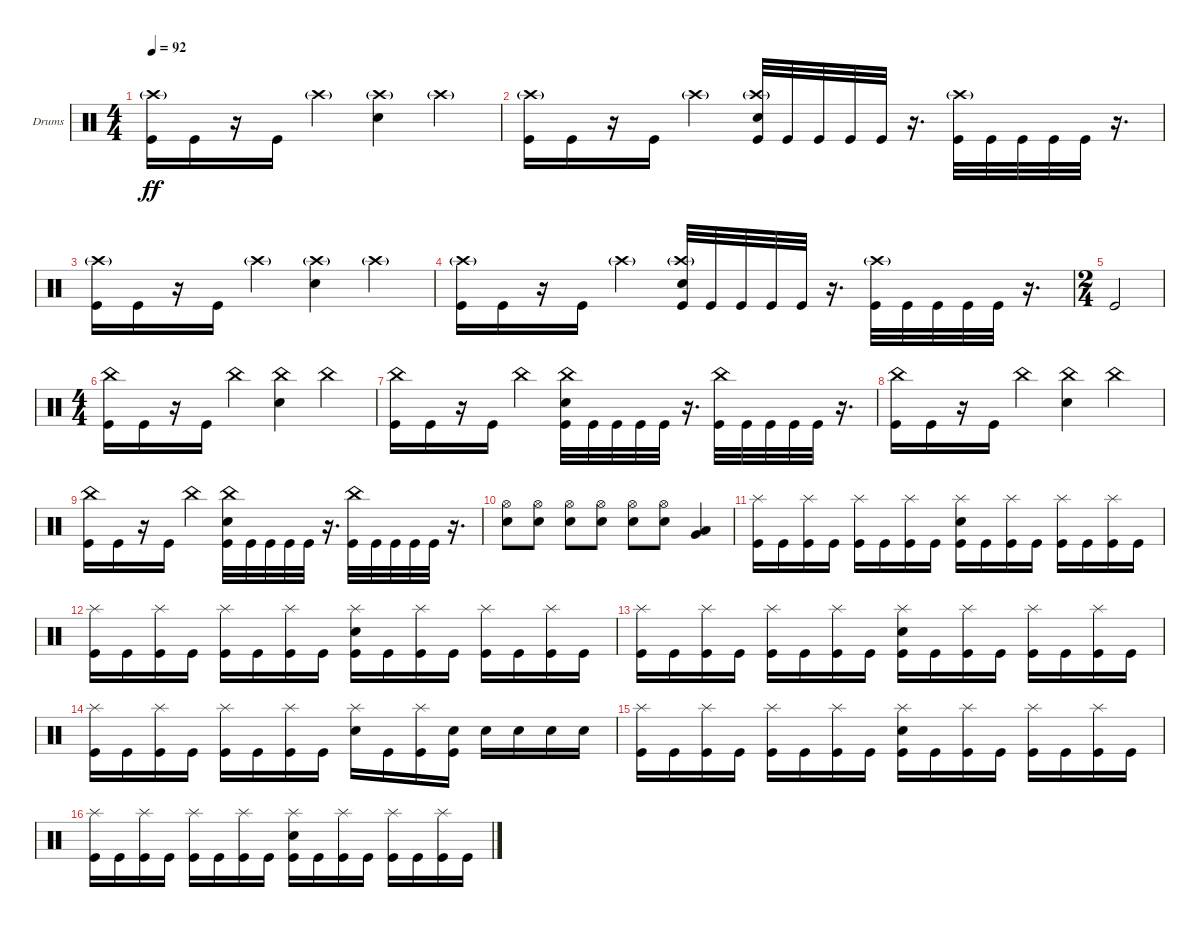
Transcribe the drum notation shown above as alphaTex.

\defaultSystemsLayout 4
\bracketExtendMode groupsimilarinstruments
\firstSystemTrackNameOrientation horizontal
\otherSystemsTrackNameOrientation horizontal
\track ("Drumkit" "Drums") {instrument percussion}
\staff {score}
\articulation defaults
\ts (4 4)
\tempo 92
\clef neutral
\ks c
("Kick (hit)" "Crash high (hit)"{g}).16{dy ff} "Kick (hit)".16 r.16 "Kick (hit)".16 "Crash high (hit)"{g}.4 ("Crash high (hit)"{g} "Snare (hit) 2").4 "Crash high (hit)"{g}.4 |
("Kick (hit)" "Crash high (hit)"{g}).16 "Kick (hit)".16 r.16 "Kick (hit)".16 "Crash high (hit)"{g}.4 ("Kick (hit)" "Crash high (hit)"{g} "Snare (hit) 2").32 "Kick (hit)".32 "Kick (hit)".32 "Kick (hit)".32 "Kick (hit)".32 r.16{d} ("Kick (hit)" "Crash high (hit)"{g}).32 "Kick (hit)".32 "Kick (hit)".32 "Kick (hit)".32 "Kick (hit)".32 r.16{d} |
("Kick (hit)" "Crash high (hit)"{g}).16 "Kick (hit)".16 r.16 "Kick (hit)".16 "Crash high (hit)"{g}.4 ("Crash high (hit)"{g} "Snare (hit) 2").4 "Crash high (hit)"{g}.4 |
("Kick (hit)" "Crash high (hit)"{g}).16 "Kick (hit)".16 r.16 "Kick (hit)".16 "Crash high (hit)"{g}.4 ("Kick (hit)" "Crash high (hit)"{g} "Snare (hit) 2").32 "Kick (hit)".32 "Kick (hit)".32 "Kick (hit)".32 "Kick (hit)".32 r.16{d} ("Kick (hit)" "Crash high (hit)"{g}).32 "Kick (hit)".32 "Kick (hit)".32 "Kick (hit)".32 "Kick (hit)".32 r.16{d} |
\ts (2 4)
"Kick (hit)".2 |
\ts (4 4)
("Kick (hit)" "China (hit)").16 "Kick (hit)".16 r.16 "Kick (hit)".16 "China (hit)".4 ("China (hit)" "Snare (hit) 2").4 "China (hit)".4 |
("Kick (hit)" "China (hit)").16 "Kick (hit)".16 r.16 "Kick (hit)".16 "China (hit)".4 ("Kick (hit)" "China (hit)" "Snare (hit) 2").32 "Kick (hit)".32 "Kick (hit)".32 "Kick (hit)".32 "Kick (hit)".32 r.16{d} ("Kick (hit)" "China (hit)").32 "Kick (hit)".32 "Kick (hit)".32 "Kick (hit)".32 "Kick (hit)".32 r.16{d} |
("Kick (hit)" "China (hit)").16 "Kick (hit)".16 r.16 "Kick (hit)".16 "China (hit)".4 ("China (hit)" "Snare (hit) 2").4 "China (hit)".4 |
("Kick (hit)" "China (hit)").16 "Kick (hit)".16 r.16 "Kick (hit)".16 "China (hit)".4 ("Kick (hit)" "China (hit)" "Snare (hit) 2").32 "Kick (hit)".32 "Kick (hit)".32 "Kick (hit)".32 "Kick (hit)".32 r.16{d} ("Kick (hit)" "China (hit)").32 "Kick (hit)".32 "Kick (hit)".32 "Kick (hit)".32 "Kick (hit)".32 r.16{d} |
("Snare (hit) 2" "Hi-Hat (open)").8 ("Snare (hit) 2" "Hi-Hat (open)").8 ("Snare (hit) 2" "Hi-Hat (open)").8 ("Snare (hit) 2" "Hi-Hat (open)").8 ("Snare (hit) 2" "Hi-Hat (open)").8 ("Snare (hit) 2" "Hi-Hat (open)").8 ("Low Tom (hit)" "Very Low Tom (hit)").4 |
("Kick (hit)" "Splash (hit)").16 "Kick (hit)".16 ("Kick (hit)" "Splash (hit)").16 "Kick (hit)".16 ("Kick (hit)" "Splash (hit)").16 "Kick (hit)".16 ("Kick (hit)" "Splash (hit)").16 "Kick (hit)".16 ("Kick (hit)" "Snare (hit) 2" "Splash (hit)").16 "Kick (hit)".16 ("Kick (hit)" "Splash (hit)").16 "Kick (hit)".16 ("Kick (hit)" "Splash (hit)").16 "Kick (hit)".16 ("Kick (hit)" "Splash (hit)").16 "Kick (hit)".16 |
("Kick (hit)" "Splash (hit)").16 "Kick (hit)".16 ("Kick (hit)" "Splash (hit)").16 "Kick (hit)".16 ("Kick (hit)" "Splash (hit)").16 "Kick (hit)".16 ("Kick (hit)" "Splash (hit)").16 "Kick (hit)".16 ("Kick (hit)" "Snare (hit) 2" "Splash (hit)").16 "Kick (hit)".16 ("Kick (hit)" "Splash (hit)").16 "Kick (hit)".16 ("Kick (hit)" "Splash (hit)").16 "Kick (hit)".16 ("Kick (hit)" "Splash (hit)").16 "Kick (hit)".16 |
("Kick (hit)" "Splash (hit)").16 "Kick (hit)".16 ("Kick (hit)" "Splash (hit)").16 "Kick (hit)".16 ("Kick (hit)" "Splash (hit)").16 "Kick (hit)".16 ("Kick (hit)" "Splash (hit)").16 "Kick (hit)".16 ("Kick (hit)" "Snare (hit) 2" "Splash (hit)").16 "Kick (hit)".16 ("Kick (hit)" "Splash (hit)").16 "Kick (hit)".16 ("Kick (hit)" "Splash (hit)").16 "Kick (hit)".16 ("Kick (hit)" "Splash (hit)").16 "Kick (hit)".16 |
("Kick (hit)" "Splash (hit)").16 "Kick (hit)".16 ("Kick (hit)" "Splash (hit)").16 "Kick (hit)".16 ("Kick (hit)" "Splash (hit)").16 "Kick (hit)".16 ("Kick (hit)" "Splash (hit)").16 "Kick (hit)".16 ("Snare (hit) 2" "Splash (hit)").16 "Kick (hit)".16 ("Splash (hit)" "Kick (hit)").16 ("Kick (hit)" "Snare (hit) 2").16 "Snare (hit) 2".16 "Snare (hit) 2".16 "Snare (hit) 2".16 "Snare (hit) 2".16 |
("Kick (hit)" "Splash (hit)").16 "Kick (hit)".16 ("Kick (hit)" "Splash (hit)").16 "Kick (hit)".16 ("Kick (hit)" "Splash (hit)").16 "Kick (hit)".16 ("Kick (hit)" "Splash (hit)").16 "Kick (hit)".16 ("Kick (hit)" "Snare (hit) 2" "Splash (hit)").16 "Kick (hit)".16 ("Kick (hit)" "Splash (hit)").16 "Kick (hit)".16 ("Kick (hit)" "Splash (hit)").16 "Kick (hit)".16 ("Kick (hit)" "Splash (hit)").16 "Kick (hit)".16 |
("Kick (hit)" "Splash (hit)").16 "Kick (hit)".16 ("Kick (hit)" "Splash (hit)").16 "Kick (hit)".16 ("Kick (hit)" "Splash (hit)").16 "Kick (hit)".16 ("Kick (hit)" "Splash (hit)").16 "Kick (hit)".16 ("Kick (hit)" "Snare (hit) 2" "Splash (hit)").16 "Kick (hit)".16 ("Kick (hit)" "Splash (hit)").16 "Kick (hit)".16 ("Kick (hit)" "Splash (hit)").16 "Kick (hit)".16 ("Kick (hit)" "Splash (hit)").16 "Kick (hit)".16
